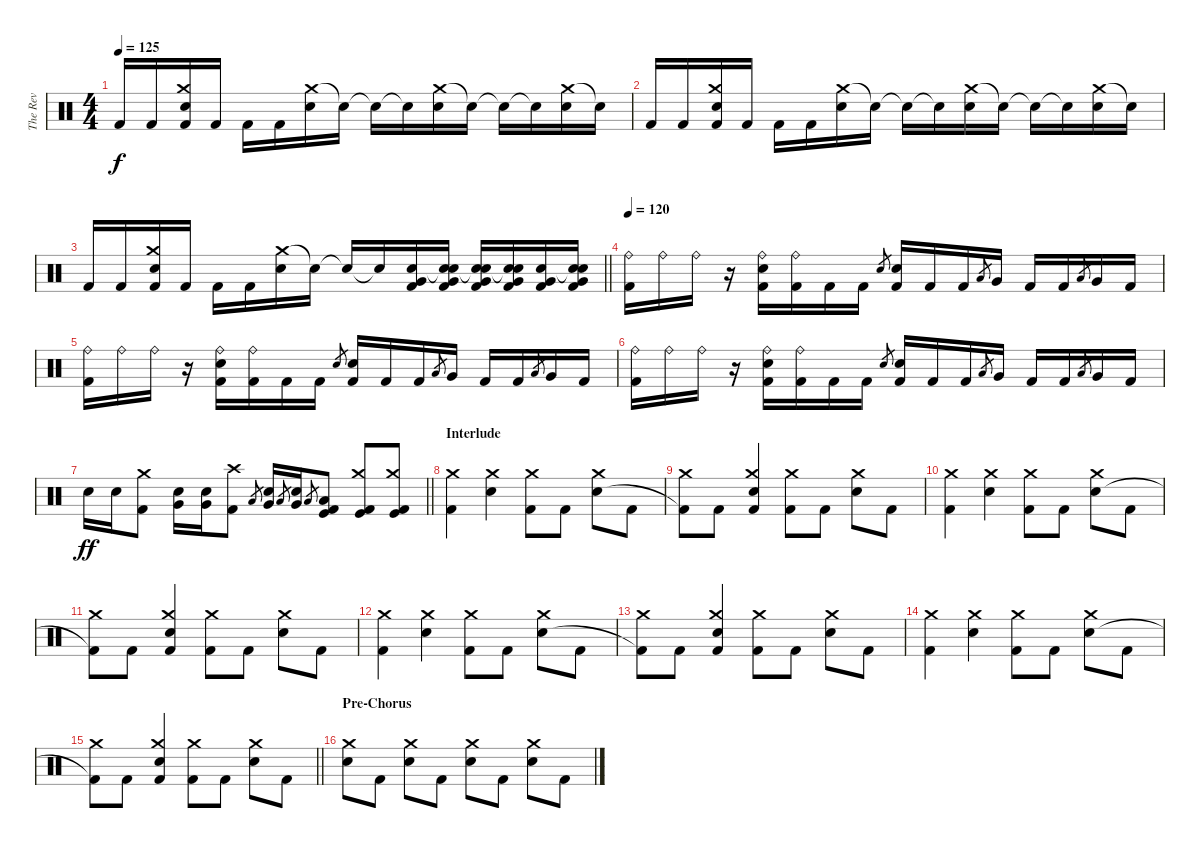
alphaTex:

\track ("The Rev" "The Rev") {instrument percussion}
\staff {score}
\articulation defaults
\ts (4 4)
\tempo 125
\clef neutral
\ks c "Kick (hit) 2".16{dy f} "Kick (hit) 2".16
("Crash medium (hit)" "Electric Snare (hit)" "Kick (hit) 2").16 "Kick (hit) 2".16 "Kick (hit) 2".16 "Kick (hit) 2".16 ("Crash medium (hit)" "Electric Snare (hit)").16 "Snare (hit)"{t}.16 "Snare (hit)"{t}.16 "Snare (hit)"{t}.16 ("Crash medium (hit)" "Electric Snare (hit)").16 "Snare (hit)"{t}.16 "Snare (hit)"{t}.16 "Snare (hit)"{t}.16 ("Crash medium (hit)" "Electric Snare (hit)").16 "Snare (hit)"{t}.16 |
"Kick (hit) 2".16 "Kick (hit) 2".16 ("Crash medium (hit)" "Electric Snare (hit)" "Kick (hit) 2").16 "Kick (hit) 2".16 "Kick (hit) 2".16 "Kick (hit) 2".16 ("Crash medium (hit)" "Electric Snare (hit)").16 "Snare (hit)"{t}.16 "Snare (hit)"{t}.16 "Snare (hit)"{t}.16 ("Crash medium (hit)" "Electric Snare (hit)").16 "Snare (hit)"{t}.16 "Snare (hit)"{t}.16 "Snare (hit)"{t}.16 ("Crash medium (hit)" "Electric Snare (hit)").16 "Snare (hit)"{t}.16 |
\barLineRight lightlight "Kick (hit) 2".16 "Kick (hit) 2".16
("Crash medium (hit)" "Electric Snare (hit)" "Kick (hit) 2").16 "Kick (hit) 2".16 "Kick (hit) 2".16 "Kick (hit) 2".16 ("Crash medium (hit)" "Electric Snare (hit)").16 "Snare (hit)"{t}.16 "Snare (hit)"{t}.16 "Snare (hit)"{t}.16 ("Electric Snare (hit)" "Very Low Tom (hit)" "Kick (hit) 2").16 ("Snare (hit)"{t} "Electric Snare (hit)" "Very Low Tom (hit)" "Kick (hit) 2").16 ("Snare (hit)"{t} "Electric Snare (hit)" "Very Low Tom (hit)" "Kick (hit) 2").16 ("Snare (hit)"{t} "Electric Snare (hit)" "Very Low Tom (hit)" "Kick (hit) 2").16 ("Electric Snare (hit)" "Very Low Tom (hit)" "Kick (hit) 2").16 ("Snare (hit)"{t} "Electric Snare (hit)" "Very Low Tom (hit)" "Kick (hit) 2").16 |
\tempo 120
("Ride (bell)" "Kick (hit) 2").16 "Ride (bell)".16 "Ride (bell)".16 r.16 ("Ride (bell)" "Electric Snare (hit)" "Kick (hit) 2").16 ("Ride (bell)" "Kick (hit) 2").16 "Kick (hit) 2".16 "Kick (hit) 2".16 "Electric Snare (hit)".8{gr} ("Electric Snare (hit)" "Kick (hit) 2").16 "Kick (hit) 2".16 "Kick (hit) 2".16 "Low Tom (hit)".8{gr} "Very Low Tom (hit)".16 "Kick (hit) 2".16 "Kick (hit) 2".16 "Low Floor Tom (hit)".8{gr} "Very Low Tom (hit)".16 "Kick (hit) 2".16 |
("Ride (bell)" "Kick (hit) 2").16 "Ride (bell)".16 "Ride (bell)".16 r.16 ("Ride (bell)" "Electric Snare (hit)" "Kick (hit) 2").16 ("Ride (bell)" "Kick (hit) 2").16 "Kick (hit) 2".16 "Kick (hit) 2".16 "Electric Snare (hit)".8{gr} ("Electric Snare (hit)" "Kick (hit) 2").16 "Kick (hit) 2".16 "Kick (hit) 2".16 "Low Tom (hit)".8{gr} "Very Low Tom (hit)".16 "Kick (hit) 2".16 "Kick (hit) 2".16 "Low Floor Tom (hit)".8{gr} "Very Low Tom (hit)".16 "Kick (hit) 2".16 |
("Ride (bell)" "Kick (hit) 2").16 "Ride (bell)".16 "Ride (bell)".16 r.16 ("Ride (bell)" "Electric Snare (hit)" "Kick (hit) 2").16 ("Ride (bell)" "Kick (hit) 2").16 "Kick (hit) 2".16 "Kick (hit) 2".16 "Electric Snare (hit)".8{gr} ("Electric Snare (hit)" "Kick (hit) 2").16 "Kick (hit) 2".16 "Kick (hit) 2".16 "Low Tom (hit)".8{gr} "Very Low Tom (hit)".16 "Kick (hit) 2".16 "Kick (hit) 2".16 "Low Floor Tom (hit)".8{gr} "Very Low Tom (hit)".16 "Kick (hit) 2".16 |
\barLineRight lightlight "Electric Snare (hit)".16{dy ff} "Electric Snare (hit)".16
("Crash medium (hit)" "Kick (hit) 2").8 ("Very Low Tom (hit)" "Electric Snare (hit)").16 ("Very Low Tom (hit)" "Electric Snare (hit)").16 ("Crash high (hit)" "Kick (hit) 2").8 "Low Floor Tom (hit)".8{gr} ("Very Low Tom (hit)" "Electric Snare (hit)").16 "Low Floor Tom (hit)".8{gr} ("Very Low Tom (hit)" "Electric Snare (hit)").16 "Low Tom (hit)".8{gr} ("Low Tom (hit)" "Kick (hit)" "Kick (hit) 2").8 ("Crash medium (hit)" "Kick (hit)" "Kick (hit) 2").8 ("Crash medium (hit)" "Kick (hit)" "Kick (hit) 2").8 |
\section ("" "Interlude")
("Crash medium (hit)" "Kick (hit) 2").4 ("Crash medium (hit)" "Electric Snare (hit)").4 ("Crash medium (hit)" "Kick (hit) 2").8 "Kick (hit) 2".8 ("Crash medium (hit)" "Electric Snare (hit)").8 "Kick (hit) 2".8 |
("Crash medium (hit)" "Kick (hit) 2"{t}).8 "Kick (hit) 2".8 ("Crash medium (hit)" "Electric Snare (hit)" "Kick (hit) 2").4 ("Crash medium (hit)" "Kick (hit) 2").8 "Kick (hit) 2".8 ("Crash medium (hit)" "Electric Snare (hit)").8 "Kick (hit) 2".8 |
("Crash medium (hit)" "Kick (hit) 2").4 ("Crash medium (hit)" "Electric Snare (hit)").4 ("Crash medium (hit)" "Kick (hit) 2").8 "Kick (hit) 2".8 ("Crash medium (hit)" "Electric Snare (hit)").8 "Kick (hit) 2".8 |
("Crash medium (hit)" "Kick (hit) 2"{t}).8 "Kick (hit) 2".8 ("Crash medium (hit)" "Electric Snare (hit)" "Kick (hit) 2").4 ("Crash medium (hit)" "Kick (hit) 2").8 "Kick (hit) 2".8 ("Crash medium (hit)" "Electric Snare (hit)").8 "Kick (hit) 2".8 |
("Crash medium (hit)" "Kick (hit) 2").4 ("Crash medium (hit)" "Electric Snare (hit)").4 ("Crash medium (hit)" "Kick (hit) 2").8 "Kick (hit) 2".8 ("Crash medium (hit)" "Electric Snare (hit)").8 "Kick (hit) 2".8 |
("Crash medium (hit)" "Kick (hit) 2"{t}).8 "Kick (hit) 2".8 ("Crash medium (hit)" "Electric Snare (hit)" "Kick (hit) 2").4 ("Crash medium (hit)" "Kick (hit) 2").8 "Kick (hit) 2".8 ("Crash medium (hit)" "Electric Snare (hit)").8 "Kick (hit) 2".8 |
("Crash medium (hit)" "Kick (hit) 2").4 ("Crash medium (hit)" "Electric Snare (hit)").4 ("Crash medium (hit)" "Kick (hit) 2").8 "Kick (hit) 2".8 ("Crash medium (hit)" "Electric Snare (hit)").8 "Kick (hit) 2".8 |
\barLineRight lightlight
("Crash medium (hit)" "Kick (hit) 2"{t}).8 "Kick (hit) 2".8 ("Crash medium (hit)" "Electric Snare (hit)" "Kick (hit) 2").4 ("Crash medium (hit)" "Kick (hit) 2").8 "Kick (hit) 2".8 ("Crash medium (hit)" "Electric Snare (hit)").8 "Kick (hit) 2".8 |
\section ("" "Pre-Chorus")
("Crash medium (hit)" "Electric Snare (hit)").8 "Kick (hit) 2".8 ("Crash medium (hit)" "Electric Snare (hit)").8 "Kick (hit) 2".8 ("Crash medium (hit)" "Electric Snare (hit)").8 "Kick (hit) 2".8 ("Crash medium (hit)" "Electric Snare (hit)").8 "Kick (hit) 2".8
